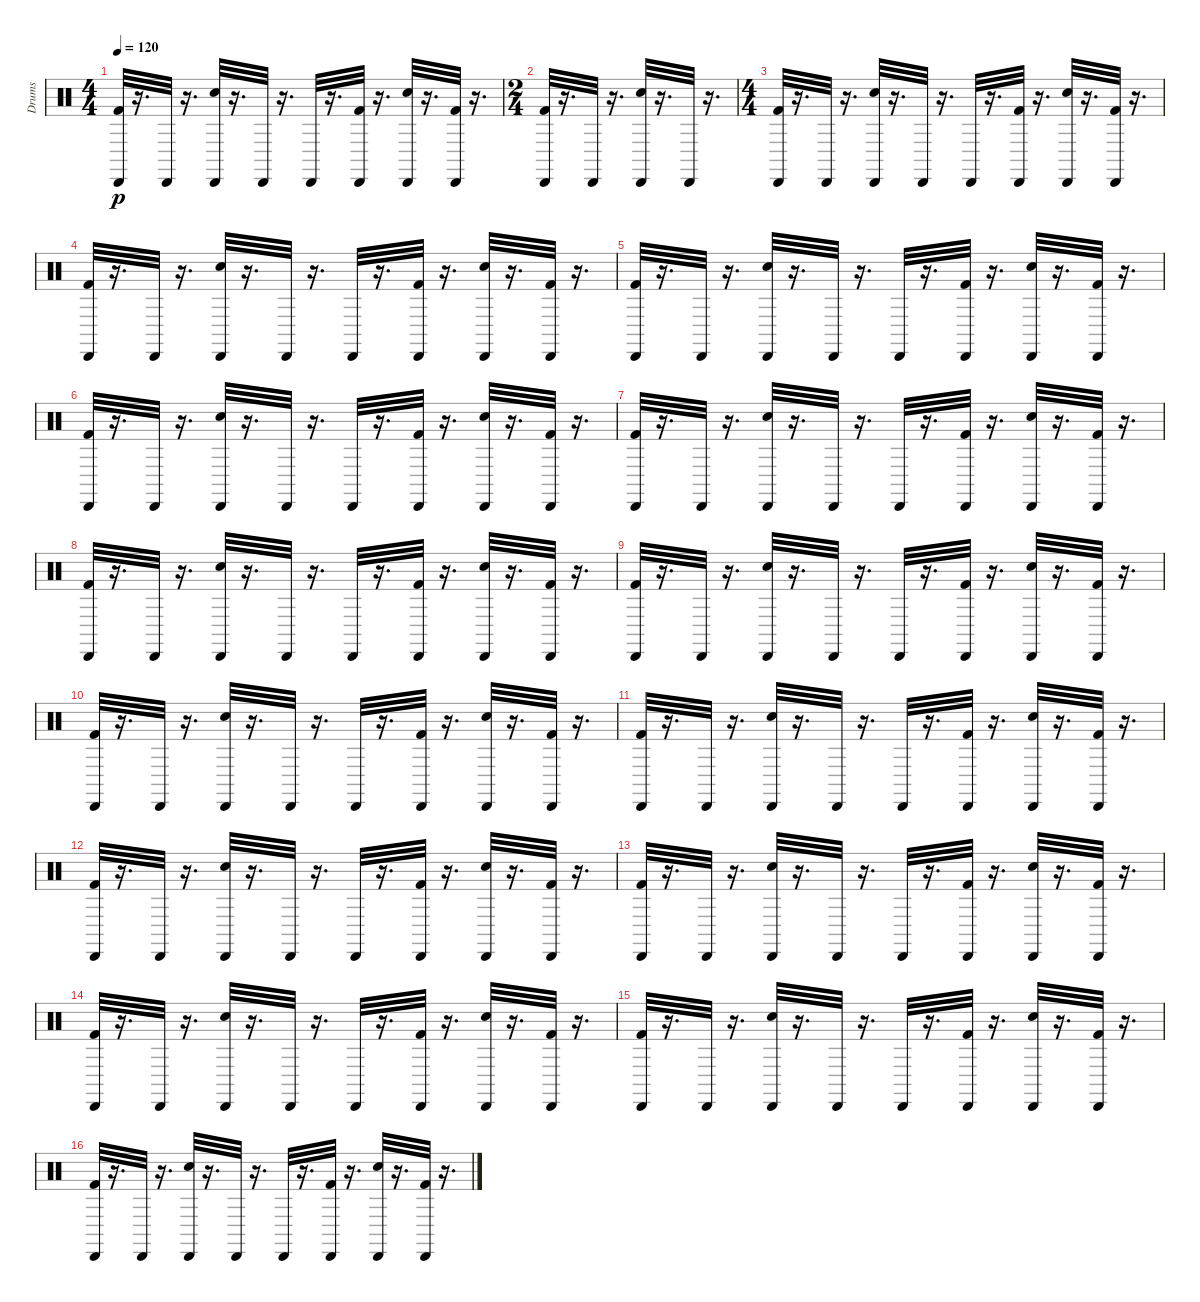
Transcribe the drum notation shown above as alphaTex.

\track ("Drums" "Drums") {instrument percussion}
\staff {score}
\articulation defaults
\ts (4 4)
\tempo 120
\clef neutral
\ks c
("Cabasa (hit)" "Kick (hit) 2").32{dy p} r.16{d} "Cabasa (hit)".32 r.16{d} ("Cabasa (hit)" "Electric Snare (hit)").32 r.16{d} "Cabasa (hit)".32 r.16{d} "Cabasa (hit)".32 r.16{d} ("Cabasa (hit)" "Kick (hit) 2").32 r.16{d} ("Cabasa (hit)" "Electric Snare (hit)").32 r.16{d} ("Cabasa (hit)" "Kick (hit) 2").32 r.16{d} |
\ts (2 4)
("Cabasa (hit)" "Kick (hit) 2").32 r.16{d} "Cabasa (hit)".32 r.16{d} ("Cabasa (hit)" "Electric Snare (hit)").32 r.16{d} "Cabasa (hit)".32 r.16{d} |
\ts (4 4)
("Cabasa (hit)" "Kick (hit) 2").32 r.16{d} "Cabasa (hit)".32 r.16{d} ("Cabasa (hit)" "Electric Snare (hit)").32 r.16{d} "Cabasa (hit)".32 r.16{d} "Cabasa (hit)".32 r.16{d} ("Cabasa (hit)" "Kick (hit) 2").32 r.16{d} ("Cabasa (hit)" "Electric Snare (hit)").32 r.16{d} ("Cabasa (hit)" "Kick (hit) 2").32 r.16{d} |
("Cabasa (hit)" "Kick (hit) 2").32 r.16{d} "Cabasa (hit)".32 r.16{d} ("Cabasa (hit)" "Electric Snare (hit)").32 r.16{d} "Cabasa (hit)".32 r.16{d} "Cabasa (hit)".32 r.16{d} ("Cabasa (hit)" "Kick (hit) 2").32 r.16{d} ("Cabasa (hit)" "Electric Snare (hit)").32 r.16{d} ("Cabasa (hit)" "Kick (hit) 2").32 r.16{d} |
("Cabasa (hit)" "Kick (hit) 2").32 r.16{d} "Cabasa (hit)".32 r.16{d} ("Cabasa (hit)" "Electric Snare (hit)").32 r.16{d} "Cabasa (hit)".32 r.16{d} "Cabasa (hit)".32 r.16{d} ("Cabasa (hit)" "Kick (hit) 2").32 r.16{d} ("Cabasa (hit)" "Electric Snare (hit)").32 r.16{d} ("Cabasa (hit)" "Kick (hit) 2").32 r.16{d} |
("Cabasa (hit)" "Kick (hit) 2").32 r.16{d} "Cabasa (hit)".32 r.16{d} ("Cabasa (hit)" "Electric Snare (hit)").32 r.16{d} "Cabasa (hit)".32 r.16{d} "Cabasa (hit)".32 r.16{d} ("Cabasa (hit)" "Kick (hit) 2").32 r.16{d} ("Cabasa (hit)" "Electric Snare (hit)").32 r.16{d} ("Cabasa (hit)" "Kick (hit) 2").32 r.16{d} |
("Cabasa (hit)" "Kick (hit) 2").32 r.16{d} "Cabasa (hit)".32 r.16{d} ("Cabasa (hit)" "Electric Snare (hit)").32 r.16{d} "Cabasa (hit)".32 r.16{d} "Cabasa (hit)".32 r.16{d} ("Cabasa (hit)" "Kick (hit) 2").32 r.16{d} ("Cabasa (hit)" "Electric Snare (hit)").32 r.16{d} ("Cabasa (hit)" "Kick (hit) 2").32 r.16{d} |
("Cabasa (hit)" "Kick (hit) 2").32 r.16{d} "Cabasa (hit)".32 r.16{d} ("Cabasa (hit)" "Electric Snare (hit)").32 r.16{d} "Cabasa (hit)".32 r.16{d} "Cabasa (hit)".32 r.16{d} ("Cabasa (hit)" "Kick (hit) 2").32 r.16{d} ("Cabasa (hit)" "Electric Snare (hit)").32 r.16{d} ("Cabasa (hit)" "Kick (hit) 2").32 r.16{d} |
("Cabasa (hit)" "Kick (hit) 2").32 r.16{d} "Cabasa (hit)".32 r.16{d} ("Cabasa (hit)" "Electric Snare (hit)").32 r.16{d} "Cabasa (hit)".32 r.16{d} "Cabasa (hit)".32 r.16{d} ("Cabasa (hit)" "Kick (hit) 2").32 r.16{d} ("Cabasa (hit)" "Electric Snare (hit)").32 r.16{d} ("Cabasa (hit)" "Kick (hit) 2").32 r.16{d} |
("Cabasa (hit)" "Kick (hit) 2").32 r.16{d} "Cabasa (hit)".32 r.16{d} ("Cabasa (hit)" "Electric Snare (hit)").32 r.16{d} "Cabasa (hit)".32 r.16{d} "Cabasa (hit)".32 r.16{d} ("Cabasa (hit)" "Kick (hit) 2").32 r.16{d} ("Cabasa (hit)" "Electric Snare (hit)").32 r.16{d} ("Cabasa (hit)" "Kick (hit) 2").32 r.16{d} |
("Cabasa (hit)" "Kick (hit) 2").32 r.16{d} "Cabasa (hit)".32 r.16{d} ("Cabasa (hit)" "Electric Snare (hit)").32 r.16{d} "Cabasa (hit)".32 r.16{d} "Cabasa (hit)".32 r.16{d} ("Cabasa (hit)" "Kick (hit) 2").32 r.16{d} ("Cabasa (hit)" "Electric Snare (hit)").32 r.16{d} ("Cabasa (hit)" "Kick (hit) 2").32 r.16{d} |
("Cabasa (hit)" "Kick (hit) 2").32 r.16{d} "Cabasa (hit)".32 r.16{d} ("Cabasa (hit)" "Electric Snare (hit)").32 r.16{d} "Cabasa (hit)".32 r.16{d} "Cabasa (hit)".32 r.16{d} ("Cabasa (hit)" "Kick (hit) 2").32 r.16{d} ("Cabasa (hit)" "Electric Snare (hit)").32 r.16{d} ("Cabasa (hit)" "Kick (hit) 2").32 r.16{d} |
("Cabasa (hit)" "Kick (hit) 2").32 r.16{d} "Cabasa (hit)".32 r.16{d} ("Cabasa (hit)" "Electric Snare (hit)").32 r.16{d} "Cabasa (hit)".32 r.16{d} "Cabasa (hit)".32 r.16{d} ("Cabasa (hit)" "Kick (hit) 2").32 r.16{d} ("Cabasa (hit)" "Electric Snare (hit)").32 r.16{d} ("Cabasa (hit)" "Kick (hit) 2").32 r.16{d} |
("Cabasa (hit)" "Kick (hit) 2").32 r.16{d} "Cabasa (hit)".32 r.16{d} ("Cabasa (hit)" "Electric Snare (hit)").32 r.16{d} "Cabasa (hit)".32 r.16{d} "Cabasa (hit)".32 r.16{d} ("Cabasa (hit)" "Kick (hit) 2").32 r.16{d} ("Cabasa (hit)" "Electric Snare (hit)").32 r.16{d} ("Cabasa (hit)" "Kick (hit) 2").32 r.16{d} |
("Cabasa (hit)" "Kick (hit) 2").32 r.16{d} "Cabasa (hit)".32 r.16{d} ("Cabasa (hit)" "Electric Snare (hit)").32 r.16{d} "Cabasa (hit)".32 r.16{d} "Cabasa (hit)".32 r.16{d} ("Cabasa (hit)" "Kick (hit) 2").32 r.16{d} ("Cabasa (hit)" "Electric Snare (hit)").32 r.16{d} ("Cabasa (hit)" "Kick (hit) 2").32 r.16{d} |
("Cabasa (hit)" "Kick (hit) 2").32 r.16{d} "Cabasa (hit)".32 r.16{d} ("Cabasa (hit)" "Electric Snare (hit)").32 r.16{d} "Cabasa (hit)".32 r.16{d} "Cabasa (hit)".32 r.16{d} ("Cabasa (hit)" "Kick (hit) 2").32 r.16{d} ("Cabasa (hit)" "Electric Snare (hit)").32 r.16{d} ("Cabasa (hit)" "Kick (hit) 2").32 r.16{d}
